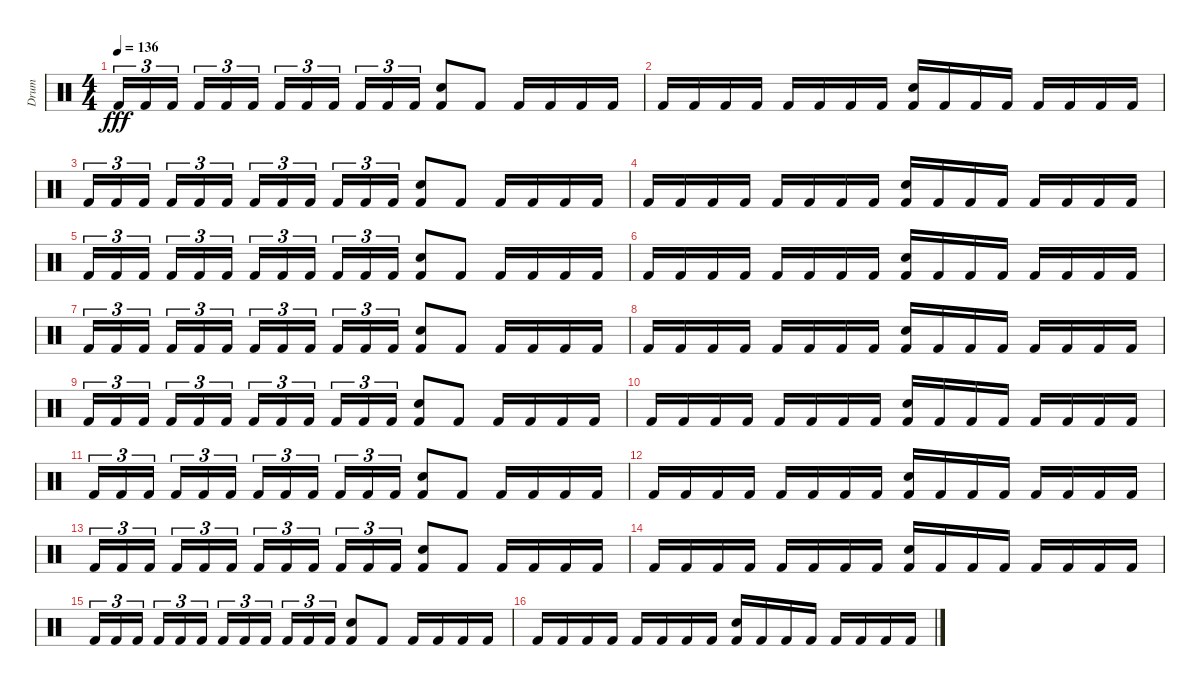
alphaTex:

\track ("Drum" "Drum") {instrument percussion}
\staff {score}
\articulation defaults
\ts (4 4)
\tempo 136
\clef neutral
\ks c "Kick (hit) 2".16{tu (3 2) dy fff} "Kick (hit) 2".16{tu (3 2)} "Kick (hit) 2".16{tu (3 2) beam splitsecondary} "Kick (hit) 2".16{tu (3 2)} "Kick (hit) 2".16{tu (3 2)} "Kick (hit) 2".16{tu (3 2)} "Kick (hit) 2".16{tu (3 2)} "Kick (hit) 2".16{tu (3 2)} "Kick (hit) 2".16{tu (3 2) beam splitsecondary} "Kick (hit) 2".16{tu (3 2)} "Kick (hit) 2".16{tu (3 2)} "Kick (hit) 2".16{tu (3 2)}
("Electric Snare (hit)" "Kick (hit) 2").8 "Kick (hit) 2".8 "Kick (hit) 2".16 "Kick (hit) 2".16 "Kick (hit) 2".16 "Kick (hit) 2".16 |
"Kick (hit) 2".16 "Kick (hit) 2".16 "Kick (hit) 2".16 "Kick (hit) 2".16 "Kick (hit) 2".16 "Kick (hit) 2".16 "Kick (hit) 2".16 "Kick (hit) 2".16 ("Electric Snare (hit)" "Kick (hit) 2").16 "Kick (hit) 2".16 "Kick (hit) 2".16 "Kick (hit) 2".16 "Kick (hit) 2".16 "Kick (hit) 2".16 "Kick (hit) 2".16 "Kick (hit) 2".16 |
"Kick (hit) 2".16{tu (3 2) volume 6} "Kick (hit) 2".16{tu (3 2)} "Kick (hit) 2".16{tu (3 2) beam splitsecondary} "Kick (hit) 2".16{tu (3 2)} "Kick (hit) 2".16{tu (3 2)} "Kick (hit) 2".16{tu (3 2)} "Kick (hit) 2".16{tu (3 2)} "Kick (hit) 2".16{tu (3 2)} "Kick (hit) 2".16{tu (3 2) beam splitsecondary} "Kick (hit) 2".16{tu (3 2)} "Kick (hit) 2".16{tu (3 2)} "Kick (hit) 2".16{tu (3 2)} ("Electric Snare (hit)" "Kick (hit) 2").8 "Kick (hit) 2".8 "Kick (hit) 2".16 "Kick (hit) 2".16 "Kick (hit) 2".16 "Kick (hit) 2".16 |
"Kick (hit) 2".16 "Kick (hit) 2".16 "Kick (hit) 2".16 "Kick (hit) 2".16 "Kick (hit) 2".16 "Kick (hit) 2".16 "Kick (hit) 2".16 "Kick (hit) 2".16 ("Electric Snare (hit)" "Kick (hit) 2").16 "Kick (hit) 2".16 "Kick (hit) 2".16 "Kick (hit) 2".16 "Kick (hit) 2".16 "Kick (hit) 2".16 "Kick (hit) 2".16 "Kick (hit) 2".16 |
"Kick (hit) 2".16{tu (3 2)} "Kick (hit) 2".16{tu (3 2)} "Kick (hit) 2".16{tu (3 2) beam splitsecondary} "Kick (hit) 2".16{tu (3 2)} "Kick (hit) 2".16{tu (3 2)} "Kick (hit) 2".16{tu (3 2)} "Kick (hit) 2".16{tu (3 2)} "Kick (hit) 2".16{tu (3 2)} "Kick (hit) 2".16{tu (3 2) beam splitsecondary} "Kick (hit) 2".16{tu (3 2)} "Kick (hit) 2".16{tu (3 2)} "Kick (hit) 2".16{tu (3 2)} ("Electric Snare (hit)" "Kick (hit) 2").8 "Kick (hit) 2".8 "Kick (hit) 2".16 "Kick (hit) 2".16 "Kick (hit) 2".16 "Kick (hit) 2".16 |
"Kick (hit) 2".16 "Kick (hit) 2".16 "Kick (hit) 2".16 "Kick (hit) 2".16 "Kick (hit) 2".16 "Kick (hit) 2".16 "Kick (hit) 2".16 "Kick (hit) 2".16 ("Electric Snare (hit)" "Kick (hit) 2").16 "Kick (hit) 2".16 "Kick (hit) 2".16 "Kick (hit) 2".16 "Kick (hit) 2".16 "Kick (hit) 2".16 "Kick (hit) 2".16 "Kick (hit) 2".16 |
"Kick (hit) 2".16{tu (3 2) volume 4} "Kick (hit) 2".16{tu (3 2)} "Kick (hit) 2".16{tu (3 2) beam splitsecondary} "Kick (hit) 2".16{tu (3 2)} "Kick (hit) 2".16{tu (3 2)} "Kick (hit) 2".16{tu (3 2)} "Kick (hit) 2".16{tu (3 2)} "Kick (hit) 2".16{tu (3 2)} "Kick (hit) 2".16{tu (3 2) beam splitsecondary} "Kick (hit) 2".16{tu (3 2)} "Kick (hit) 2".16{tu (3 2)} "Kick (hit) 2".16{tu (3 2)} ("Electric Snare (hit)" "Kick (hit) 2").8 "Kick (hit) 2".8 "Kick (hit) 2".16 "Kick (hit) 2".16 "Kick (hit) 2".16 "Kick (hit) 2".16 |
"Kick (hit) 2".16 "Kick (hit) 2".16 "Kick (hit) 2".16 "Kick (hit) 2".16 "Kick (hit) 2".16 "Kick (hit) 2".16 "Kick (hit) 2".16 "Kick (hit) 2".16 ("Electric Snare (hit)" "Kick (hit) 2").16 "Kick (hit) 2".16 "Kick (hit) 2".16 "Kick (hit) 2".16 "Kick (hit) 2".16 "Kick (hit) 2".16 "Kick (hit) 2".16 "Kick (hit) 2".16 |
"Kick (hit) 2".16{tu (3 2)} "Kick (hit) 2".16{tu (3 2)} "Kick (hit) 2".16{tu (3 2) beam splitsecondary} "Kick (hit) 2".16{tu (3 2)} "Kick (hit) 2".16{tu (3 2)} "Kick (hit) 2".16{tu (3 2)} "Kick (hit) 2".16{tu (3 2)} "Kick (hit) 2".16{tu (3 2)} "Kick (hit) 2".16{tu (3 2) beam splitsecondary} "Kick (hit) 2".16{tu (3 2)} "Kick (hit) 2".16{tu (3 2)} "Kick (hit) 2".16{tu (3 2)} ("Electric Snare (hit)" "Kick (hit) 2").8 "Kick (hit) 2".8 "Kick (hit) 2".16 "Kick (hit) 2".16 "Kick (hit) 2".16 "Kick (hit) 2".16 |
"Kick (hit) 2".16 "Kick (hit) 2".16 "Kick (hit) 2".16 "Kick (hit) 2".16 "Kick (hit) 2".16 "Kick (hit) 2".16 "Kick (hit) 2".16 "Kick (hit) 2".16 ("Electric Snare (hit)" "Kick (hit) 2").16 "Kick (hit) 2".16 "Kick (hit) 2".16 "Kick (hit) 2".16 "Kick (hit) 2".16 "Kick (hit) 2".16 "Kick (hit) 2".16 "Kick (hit) 2".16 |
"Kick (hit) 2".16{tu (3 2) volume 2} "Kick (hit) 2".16{tu (3 2)} "Kick (hit) 2".16{tu (3 2) beam splitsecondary} "Kick (hit) 2".16{tu (3 2)} "Kick (hit) 2".16{tu (3 2)} "Kick (hit) 2".16{tu (3 2)} "Kick (hit) 2".16{tu (3 2)} "Kick (hit) 2".16{tu (3 2)} "Kick (hit) 2".16{tu (3 2) beam splitsecondary} "Kick (hit) 2".16{tu (3 2)} "Kick (hit) 2".16{tu (3 2)} "Kick (hit) 2".16{tu (3 2)} ("Electric Snare (hit)" "Kick (hit) 2").8 "Kick (hit) 2".8 "Kick (hit) 2".16 "Kick (hit) 2".16 "Kick (hit) 2".16 "Kick (hit) 2".16 |
"Kick (hit) 2".16 "Kick (hit) 2".16 "Kick (hit) 2".16 "Kick (hit) 2".16 "Kick (hit) 2".16 "Kick (hit) 2".16 "Kick (hit) 2".16 "Kick (hit) 2".16 ("Electric Snare (hit)" "Kick (hit) 2").16 "Kick (hit) 2".16 "Kick (hit) 2".16 "Kick (hit) 2".16 "Kick (hit) 2".16 "Kick (hit) 2".16 "Kick (hit) 2".16 "Kick (hit) 2".16 |
"Kick (hit) 2".16{tu (3 2)} "Kick (hit) 2".16{tu (3 2)} "Kick (hit) 2".16{tu (3 2) beam splitsecondary} "Kick (hit) 2".16{tu (3 2)} "Kick (hit) 2".16{tu (3 2)} "Kick (hit) 2".16{tu (3 2)} "Kick (hit) 2".16{tu (3 2)} "Kick (hit) 2".16{tu (3 2)} "Kick (hit) 2".16{tu (3 2) beam splitsecondary} "Kick (hit) 2".16{tu (3 2)} "Kick (hit) 2".16{tu (3 2)} "Kick (hit) 2".16{tu (3 2)} ("Electric Snare (hit)" "Kick (hit) 2").8 "Kick (hit) 2".8 "Kick (hit) 2".16 "Kick (hit) 2".16 "Kick (hit) 2".16 "Kick (hit) 2".16 |
"Kick (hit) 2".16 "Kick (hit) 2".16 "Kick (hit) 2".16 "Kick (hit) 2".16 "Kick (hit) 2".16 "Kick (hit) 2".16 "Kick (hit) 2".16 "Kick (hit) 2".16 ("Electric Snare (hit)" "Kick (hit) 2").16 "Kick (hit) 2".16 "Kick (hit) 2".16 "Kick (hit) 2".16 "Kick (hit) 2".16 "Kick (hit) 2".16 "Kick (hit) 2".16 "Kick (hit) 2".16 |
"Kick (hit) 2".16{tu (3 2) volume 1} "Kick (hit) 2".16{tu (3 2)} "Kick (hit) 2".16{tu (3 2) beam splitsecondary} "Kick (hit) 2".16{tu (3 2)} "Kick (hit) 2".16{tu (3 2)} "Kick (hit) 2".16{tu (3 2)} "Kick (hit) 2".16{tu (3 2)} "Kick (hit) 2".16{tu (3 2)} "Kick (hit) 2".16{tu (3 2) beam splitsecondary} "Kick (hit) 2".16{tu (3 2)} "Kick (hit) 2".16{tu (3 2)} "Kick (hit) 2".16{tu (3 2)} ("Electric Snare (hit)" "Kick (hit) 2").8 "Kick (hit) 2".8 "Kick (hit) 2".16 "Kick (hit) 2".16 "Kick (hit) 2".16 "Kick (hit) 2".16 |
"Kick (hit) 2".16 "Kick (hit) 2".16 "Kick (hit) 2".16 "Kick (hit) 2".16 "Kick (hit) 2".16 "Kick (hit) 2".16 "Kick (hit) 2".16 "Kick (hit) 2".16 ("Electric Snare (hit)" "Kick (hit) 2").16 "Kick (hit) 2".16 "Kick (hit) 2".16 "Kick (hit) 2".16 "Kick (hit) 2".16 "Kick (hit) 2".16 "Kick (hit) 2".16 "Kick (hit) 2".16
